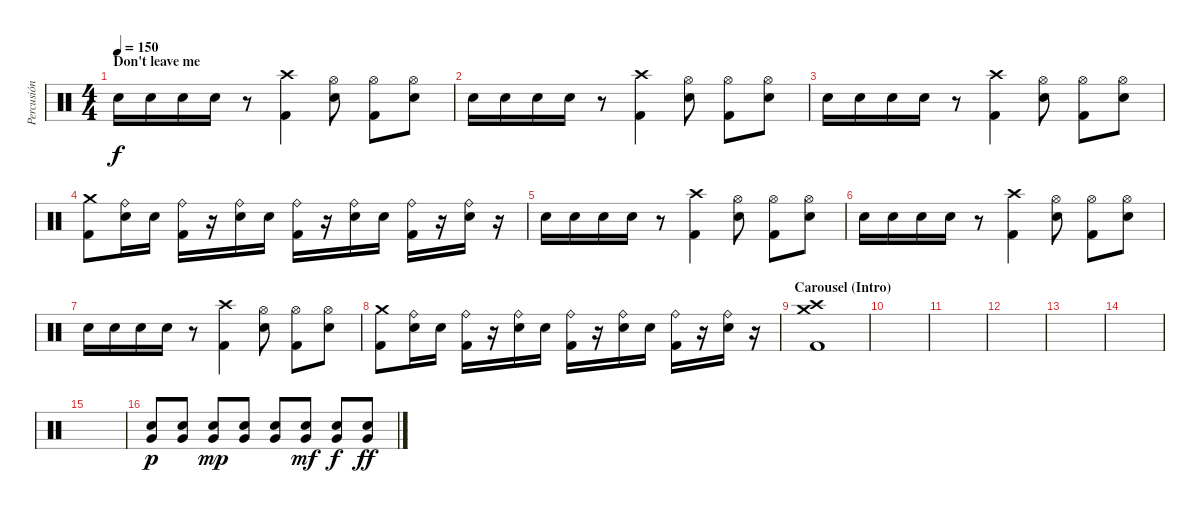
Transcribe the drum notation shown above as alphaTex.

\track ("Percusión" "Percusión") {instrument percussion}
\staff {score}
\articulation defaults
\ts (4 4)
\section ("" "Don't leave me")
\tempo 150
\clef neutral
\ks c "Electric Snare (hit)".16{dy f} "Electric Snare (hit)".16 "Electric Snare (hit)".16 "Electric Snare (hit)".16
r.8 ("Crash high (hit)" "Kick (hit) 2").4 ("Hi-Hat (open)" "Electric Snare (hit)").8 ("Hi-Hat (open)" "Kick (hit) 2").8 ("Hi-Hat (open)" "Electric Snare (hit)").8 |
"Electric Snare (hit)".16 "Electric Snare (hit)".16 "Electric Snare (hit)".16 "Electric Snare (hit)".16 r.8 ("Crash high (hit)" "Kick (hit) 2").4 ("Hi-Hat (open)" "Electric Snare (hit)").8 ("Hi-Hat (open)" "Kick (hit) 2").8 ("Hi-Hat (open)" "Electric Snare (hit)").8 |
"Electric Snare (hit)".16 "Electric Snare (hit)".16 "Electric Snare (hit)".16 "Electric Snare (hit)".16 r.8 ("Crash high (hit)" "Kick (hit) 2").4 ("Hi-Hat (open)" "Electric Snare (hit)").8 ("Hi-Hat (open)" "Kick (hit) 2").8 ("Hi-Hat (open)" "Electric Snare (hit)").8 |
("Crash medium (hit)" "Kick (hit) 2").8 ("Ride (bell)" "Electric Snare (hit)").16 "Electric Snare (hit)".16 ("Ride (bell)" "Kick (hit) 2").16 r.16 ("Ride (bell)" "Electric Snare (hit)").16 "Electric Snare (hit)".16 ("Ride (bell)" "Kick (hit) 2").16 r.16 ("Ride (bell)" "Electric Snare (hit)").16 "Electric Snare (hit)".16 ("Ride (bell)" "Kick (hit) 2").16 r.16 ("Ride (bell)" "Electric Snare (hit)").16 r.16 |
"Electric Snare (hit)".16 "Electric Snare (hit)".16 "Electric Snare (hit)".16 "Electric Snare (hit)".16 r.8 ("Crash high (hit)" "Kick (hit) 2").4 ("Hi-Hat (open)" "Electric Snare (hit)").8 ("Hi-Hat (open)" "Kick (hit) 2").8 ("Hi-Hat (open)" "Electric Snare (hit)").8 |
"Electric Snare (hit)".16 "Electric Snare (hit)".16 "Electric Snare (hit)".16 "Electric Snare (hit)".16 r.8 ("Crash high (hit)" "Kick (hit) 2").4 ("Hi-Hat (open)" "Electric Snare (hit)").8 ("Hi-Hat (open)" "Kick (hit) 2").8 ("Hi-Hat (open)" "Electric Snare (hit)").8 |
"Electric Snare (hit)".16 "Electric Snare (hit)".16 "Electric Snare (hit)".16 "Electric Snare (hit)".16 r.8 ("Crash high (hit)" "Kick (hit) 2").4 ("Hi-Hat (open)" "Electric Snare (hit)").8 ("Hi-Hat (open)" "Kick (hit) 2").8 ("Hi-Hat (open)" "Electric Snare (hit)").8 |
("Crash medium (hit)" "Kick (hit) 2").8 ("Ride (bell)" "Electric Snare (hit)").16 "Electric Snare (hit)".16 ("Ride (bell)" "Kick (hit) 2").16 r.16 ("Ride (bell)" "Electric Snare (hit)").16 "Electric Snare (hit)".16 ("Ride (bell)" "Kick (hit) 2").16 r.16 ("Ride (bell)" "Electric Snare (hit)").16 "Electric Snare (hit)".16 ("Ride (bell)" "Kick (hit) 2").16 r.16 ("Ride (bell)" "Electric Snare (hit)").16 r.16 |
\section ("" "Carousel (Intro)")
("Crash high (hit)" "Crash medium (hit)" "Kick (hit) 2").1 |
|
|
|
|
|
|
("Very Low Tom (hit)" "Electric Snare (hit)").8{dy p} ("Very Low Tom (hit)" "Electric Snare (hit)").8 ("Very Low Tom (hit)" "Electric Snare (hit)").8{dy mp} ("Very Low Tom (hit)" "Electric Snare (hit)").8 ("Very Low Tom (hit)" "Electric Snare (hit)").8 ("Very Low Tom (hit)" "Electric Snare (hit)").8{dy mf} ("Very Low Tom (hit)" "Electric Snare (hit)").8{dy f} ("Very Low Tom (hit)" "Electric Snare (hit)").8{dy ff}
